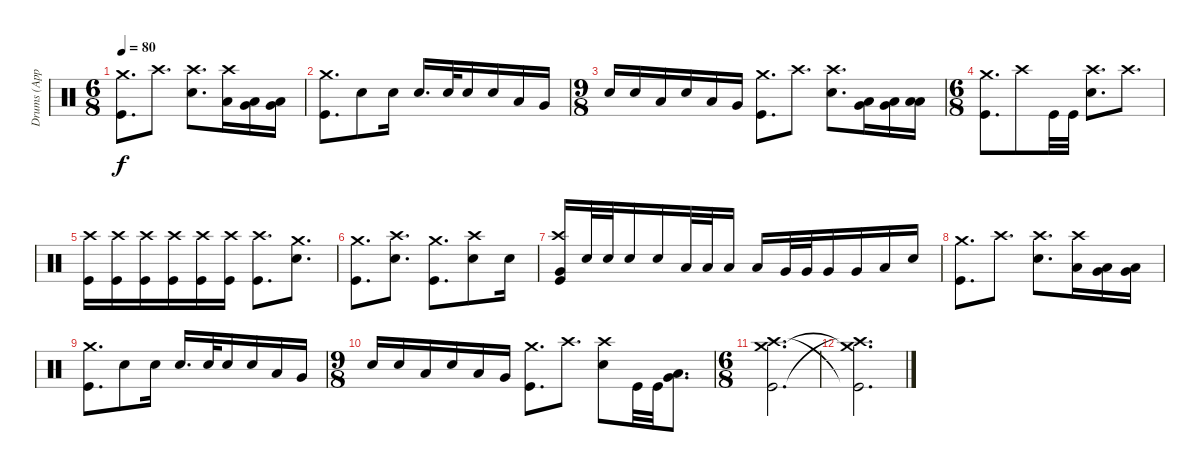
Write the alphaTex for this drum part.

\track ("Drums (Appelhans/Durst)" "Drums (App") {instrument percussion}
\staff {score}
\articulation defaults
\ts (6 8)
\tempo 80
\clef neutral
\ks c
("Kick (hit)" "Crash medium (hit)").8{d dy f} "Crash high (hit)".8{d} ("Crash high (hit)" "Snare (hit) 2").8{d} ("Crash high (hit)" "Low Tom (hit)").16 ("Low Tom (hit)" "Very Low Tom (hit)").16 ("Low Tom (hit)" "Very Low Tom (hit)").16 |
("Kick (hit)" "Crash medium (hit)").8{d} "Snare (hit) 2".8 "Snare (hit) 2".16 "Snare (hit) 2".16{d} "Snare (hit) 2".32 "Snare (hit) 2".16 "Snare (hit) 2".16 "Low Tom (hit)".16 "Very Low Tom (hit)".16 |
\ts (9 8)
"Snare (hit) 2".16 "Snare (hit) 2".16 "Low Tom (hit)".16 "Snare (hit) 2".16 "Low Tom (hit)".16 "Very Low Tom (hit)".16 ("Crash medium (hit)" "Kick (hit)").8{d} "Crash high (hit)".8{d} ("Crash high (hit)" "Snare (hit) 2").8{d} ("Low Tom (hit)" "Very Low Tom (hit)").16 ("Low Tom (hit)" "Very Low Tom (hit)").16 ("Low Tom (hit)" "Low Floor Tom (hit)").16 |
\ts (6 8)
("Kick (hit)" "Crash medium (hit)").8{d} "Crash high (hit)".8 "Kick (hit)".32 "Kick (hit)".32 ("Snare (hit) 2" "Crash high (hit)").8{d} "Crash high (hit)".8{d} |
("Kick (hit)" "Crash high (hit)").16 ("Kick (hit)" "Crash high (hit)").16 ("Kick (hit)" "Crash high (hit)").16 ("Kick (hit)" "Crash high (hit)").16 ("Kick (hit)" "Crash high (hit)").16 ("Kick (hit)" "Crash high (hit)").16 ("Kick (hit)" "Crash high (hit)").8{d} ("Snare (hit) 2" "Crash medium (hit)").8{d} |
("Kick (hit)" "Crash medium (hit)").8{d} ("Snare (hit) 2" "Crash high (hit)").8{d} ("Kick (hit)" "Crash medium (hit)").8{d} ("Snare (hit) 2" "Crash high (hit)").8 "Snare (hit) 2".16 |
("Kick (hit)" "Very Low Tom (hit)" "Crash high (hit)").16 "Snare (hit) 2".32 "Snare (hit) 2".32 "Snare (hit) 2".16 "Snare (hit) 2".16 "Low Tom (hit)".32 "Low Tom (hit)".32 "Low Tom (hit)".16 "Low Tom (hit)".16 "Very Low Tom (hit)".32 "Very Low Tom (hit)".32 "Very Low Tom (hit)".16 "Very Low Tom (hit)".16 "Low Floor Tom (hit)".16 "Snare (hit) 2".16 |
("Kick (hit)" "Crash medium (hit)").8{d} "Crash high (hit)".8{d} ("Crash high (hit)" "Snare (hit) 2").8{d} ("Crash high (hit)" "Low Tom (hit)").16 ("Low Tom (hit)" "Very Low Tom (hit)").16 ("Low Tom (hit)" "Very Low Tom (hit)").16 |
("Kick (hit)" "Crash medium (hit)").8{d} "Snare (hit) 2".8 "Snare (hit) 2".16 "Snare (hit) 2".16{d} "Snare (hit) 2".32 "Snare (hit) 2".16 "Snare (hit) 2".16 "Low Tom (hit)".16 "Very Low Tom (hit)".16 |
\ts (9 8)
"Snare (hit) 2".16 "Snare (hit) 2".16 "Low Tom (hit)".16 "Snare (hit) 2".16 "Low Tom (hit)".16 "Very Low Tom (hit)".16 ("Crash medium (hit)" "Kick (hit)").8{d} "Crash high (hit)".8{d} ("Crash high (hit)" "Snare (hit) 2").8 "Kick (hit)".32 "Kick (hit)".32 ("Very Low Tom (hit)" "Low Tom (hit)").8{d} |
\ts (6 8)
("Kick (hit)" "Crash medium (hit)" "Crash high (hit)").2{d} |
("Crash high (hit)"{t} "Crash medium (hit)"{t} "Kick (hit)"{t}).2{d}
